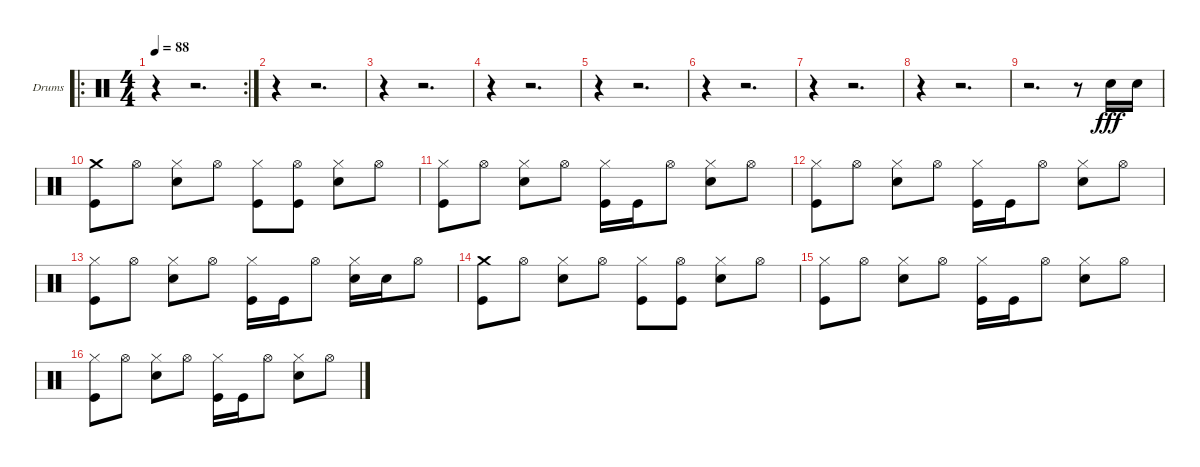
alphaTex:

\bracketExtendMode groupsimilarinstruments
\firstSystemTrackNameOrientation horizontal
\otherSystemsTrackNameOrientation horizontal
\track ("Drumkit" "Drums") {instrument percussion}
\staff {score}
\articulation defaults
\ro
\rc 2
\ts (4 4)
\tempo 88
\clef neutral
\scale
0.472222
\ks c
r.4{dy fff} r.2{d} |
\scale
0.263889 r.4 r.2{d} |
\scale
0.263889 r.4 r.2{d} |
\scale
0.333333 r.4 r.2{d} |
\scale
0.333333 r.4 r.2{d} |
\scale
0.333333 r.4 r.2{d} |
\scale
0.333333 r.4 r.2{d} |
\scale
0.333333 r.4 r.2{d} |
\scale
0.333333 r.2{d} r.8 "Snare (hit) 2".16 "Snare (hit) 2".16 |
\scale
0.333333 ("Crash medium (hit)" "Kick (hit)").8 "Hi-Hat (open)".8 ("Hi-Hat (closed)" "Snare (hit) 2").8 "Hi-Hat (open)".8 ("Hi-Hat (closed)" "Kick (hit)").8 ("Hi-Hat (open)" "Kick (hit)").8 ("Hi-Hat (closed)" "Snare (hit) 2").8 "Hi-Hat (open)".8 |
\scale
0.333333 ("Hi-Hat (closed)" "Kick (hit)").8 "Hi-Hat (open)".8 ("Hi-Hat (closed)" "Snare (hit) 2").8 "Hi-Hat (open)".8 ("Hi-Hat (closed)" "Kick (hit)").16 "Kick (hit)".16 "Hi-Hat (open)".8 ("Hi-Hat (closed)" "Snare (hit) 2").8 "Hi-Hat (open)".8 |
\scale
0.333333 ("Hi-Hat (closed)" "Kick (hit)").8 "Hi-Hat (open)".8 ("Hi-Hat (closed)" "Snare (hit) 2").8 "Hi-Hat (open)".8 ("Hi-Hat (closed)" "Kick (hit)").16 "Kick (hit)".16 "Hi-Hat (open)".8 ("Hi-Hat (closed)" "Snare (hit) 2").8 "Hi-Hat (open)".8 |
\scale
0.333333 ("Hi-Hat (closed)" "Kick (hit)").8 "Hi-Hat (open)".8 ("Hi-Hat (closed)" "Snare (hit) 2").8 "Hi-Hat (open)".8 ("Hi-Hat (closed)" "Kick (hit)").16 "Kick (hit)".16 "Hi-Hat (open)".8 ("Hi-Hat (closed)" "Snare (hit) 2").16 "Snare (hit) 2".16 "Hi-Hat (open)".8 |
\scale
0.333333 ("Crash medium (hit)" "Kick (hit)").8 "Hi-Hat (open)".8 ("Hi-Hat (closed)" "Snare (hit) 2").8 "Hi-Hat (open)".8 ("Hi-Hat (closed)" "Kick (hit)").8 ("Hi-Hat (open)" "Kick (hit)").8 ("Hi-Hat (closed)" "Snare (hit) 2").8 "Hi-Hat (open)".8 |
\scale
0.333333 ("Hi-Hat (closed)" "Kick (hit)").8 "Hi-Hat (open)".8 ("Hi-Hat (closed)" "Snare (hit) 2").8 "Hi-Hat (open)".8 ("Hi-Hat (closed)" "Kick (hit)").16 "Kick (hit)".16 "Hi-Hat (open)".8 ("Hi-Hat (closed)" "Snare (hit) 2").8 "Hi-Hat (open)".8 |
\scale
0.333333 ("Hi-Hat (closed)" "Kick (hit)").8 "Hi-Hat (open)".8 ("Hi-Hat (closed)" "Snare (hit) 2").8 "Hi-Hat (open)".8 ("Hi-Hat (closed)" "Kick (hit)").16 "Kick (hit)".16 "Hi-Hat (open)".8 ("Hi-Hat (closed)" "Snare (hit) 2").8 "Hi-Hat (open)".8
